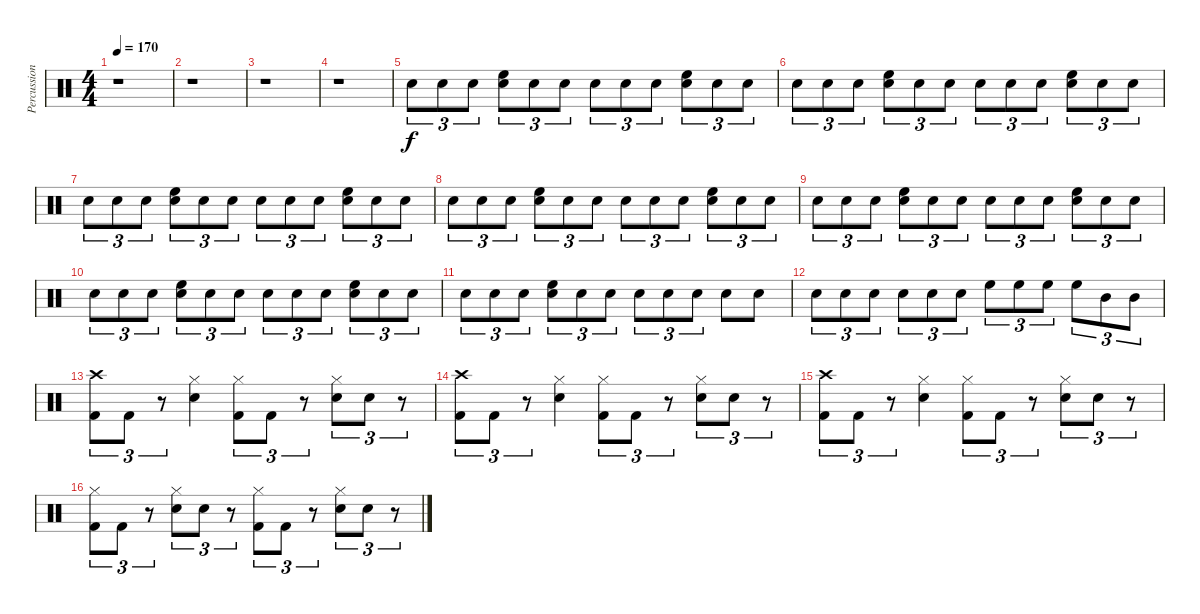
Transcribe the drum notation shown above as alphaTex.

\track ("Percussion" "Percussion") {instrument percussion}
\staff {score}
\articulation defaults
\ts (4 4)
\tempo 170
\clef neutral
\ks c
r.1{dy f} |
r.1 |
r.1 |
r.1 |
"Snare (hit) 2".8{tu (3 2)} "Snare (hit) 2".8{tu (3 2)} "Snare (hit) 2".8{tu (3 2)} ("High Floor Tom (hit)" "Snare (hit) 2").8{tu (3 2)} "Snare (hit) 2".8{tu (3 2)} "Snare (hit) 2".8{tu (3 2)} "Snare (hit) 2".8{tu (3 2)} "Snare (hit) 2".8{tu (3 2)} "Snare (hit) 2".8{tu (3 2)} ("High Floor Tom (hit)" "Snare (hit) 2").8{tu (3 2)} "Snare (hit) 2".8{tu (3 2)} "Snare (hit) 2".8{tu (3 2)} |
"Snare (hit) 2".8{tu (3 2)} "Snare (hit) 2".8{tu (3 2)} "Snare (hit) 2".8{tu (3 2)} ("High Floor Tom (hit)" "Snare (hit) 2").8{tu (3 2)} "Snare (hit) 2".8{tu (3 2)} "Snare (hit) 2".8{tu (3 2)} "Snare (hit) 2".8{tu (3 2)} "Snare (hit) 2".8{tu (3 2)} "Snare (hit) 2".8{tu (3 2)} ("High Floor Tom (hit)" "Snare (hit) 2").8{tu (3 2)} "Snare (hit) 2".8{tu (3 2)} "Snare (hit) 2".8{tu (3 2)} |
"Snare (hit) 2".8{tu (3 2)} "Snare (hit) 2".8{tu (3 2)} "Snare (hit) 2".8{tu (3 2)} ("High Floor Tom (hit)" "Snare (hit) 2").8{tu (3 2)} "Snare (hit) 2".8{tu (3 2)} "Snare (hit) 2".8{tu (3 2)} "Snare (hit) 2".8{tu (3 2)} "Snare (hit) 2".8{tu (3 2)} "Snare (hit) 2".8{tu (3 2)} ("High Floor Tom (hit)" "Snare (hit) 2").8{tu (3 2)} "Snare (hit) 2".8{tu (3 2)} "Snare (hit) 2".8{tu (3 2)} |
"Snare (hit) 2".8{tu (3 2)} "Snare (hit) 2".8{tu (3 2)} "Snare (hit) 2".8{tu (3 2)} ("High Floor Tom (hit)" "Snare (hit) 2").8{tu (3 2)} "Snare (hit) 2".8{tu (3 2)} "Snare (hit) 2".8{tu (3 2)} "Snare (hit) 2".8{tu (3 2)} "Snare (hit) 2".8{tu (3 2)} "Snare (hit) 2".8{tu (3 2)} ("High Floor Tom (hit)" "Snare (hit) 2").8{tu (3 2)} "Snare (hit) 2".8{tu (3 2)} "Snare (hit) 2".8{tu (3 2)} |
"Snare (hit) 2".8{tu (3 2)} "Snare (hit) 2".8{tu (3 2)} "Snare (hit) 2".8{tu (3 2)} ("High Floor Tom (hit)" "Snare (hit) 2").8{tu (3 2)} "Snare (hit) 2".8{tu (3 2)} "Snare (hit) 2".8{tu (3 2)} "Snare (hit) 2".8{tu (3 2)} "Snare (hit) 2".8{tu (3 2)} "Snare (hit) 2".8{tu (3 2)} ("High Floor Tom (hit)" "Snare (hit) 2").8{tu (3 2)} "Snare (hit) 2".8{tu (3 2)} "Snare (hit) 2".8{tu (3 2)} |
"Snare (hit) 2".8{tu (3 2)} "Snare (hit) 2".8{tu (3 2)} "Snare (hit) 2".8{tu (3 2)} ("High Floor Tom (hit)" "Snare (hit) 2").8{tu (3 2)} "Snare (hit) 2".8{tu (3 2)} "Snare (hit) 2".8{tu (3 2)} "Snare (hit) 2".8{tu (3 2)} "Snare (hit) 2".8{tu (3 2)} "Snare (hit) 2".8{tu (3 2)} ("High Floor Tom (hit)" "Snare (hit) 2").8{tu (3 2)} "Snare (hit) 2".8{tu (3 2)} "Snare (hit) 2".8{tu (3 2)} |
"Snare (hit) 2".8{tu (3 2)} "Snare (hit) 2".8{tu (3 2)} "Snare (hit) 2".8{tu (3 2)} ("High Floor Tom (hit)" "Snare (hit) 2").8{tu (3 2)} "Snare (hit) 2".8{tu (3 2)} "Snare (hit) 2".8{tu (3 2)} "Snare (hit) 2".8{tu (3 2)} "Snare (hit) 2".8{tu (3 2)} "Snare (hit) 2".8{tu (3 2)} "Snare (hit) 2".8 "Snare (hit) 2".8 |
"Snare (hit) 2".8{tu (3 2)} "Snare (hit) 2".8{tu (3 2)} "Snare (hit) 2".8{tu (3 2)} "Snare (hit) 2".8{tu (3 2)} "Snare (hit) 2".8{tu (3 2)} "Snare (hit) 2".8{tu (3 2)} "High Floor Tom (hit)".8{tu (3 2)} "High Floor Tom (hit)".8{tu (3 2)} "High Floor Tom (hit)".8{tu (3 2)} "High Floor Tom (hit)".8{tu (3 2)} "Mid Tom (hit)".8{tu (3 2)} "Mid Tom (hit)".8{tu (3 2)} |
("Crash high (hit)" "Kick (hit) 2").8{tu (3 2)} "Kick (hit) 2".8{tu (3 2)} r.8{tu (3 2)} ("Hi-Hat (closed)" "Snare (hit) 2").4 ("Hi-Hat (closed)" "Kick (hit) 2").8{tu (3 2)} "Kick (hit) 2".8{tu (3 2)} r.8{tu (3 2)} ("Hi-Hat (closed)" "Snare (hit) 2").8{tu (3 2)} "Snare (hit) 2".8{tu (3 2)} r.8{tu (3 2)} |
("Crash high (hit)" "Kick (hit) 2").8{tu (3 2)} "Kick (hit) 2".8{tu (3 2)} r.8{tu (3 2)} ("Hi-Hat (closed)" "Snare (hit) 2").4 ("Hi-Hat (closed)" "Kick (hit) 2").8{tu (3 2)} "Kick (hit) 2".8{tu (3 2)} r.8{tu (3 2)} ("Hi-Hat (closed)" "Snare (hit) 2").8{tu (3 2)} "Snare (hit) 2".8{tu (3 2)} r.8{tu (3 2)} |
("Crash high (hit)" "Kick (hit) 2").8{tu (3 2)} "Kick (hit) 2".8{tu (3 2)} r.8{tu (3 2)} ("Hi-Hat (closed)" "Snare (hit) 2").4 ("Hi-Hat (closed)" "Kick (hit) 2").8{tu (3 2)} "Kick (hit) 2".8{tu (3 2)} r.8{tu (3 2)} ("Hi-Hat (closed)" "Snare (hit) 2").8{tu (3 2)} "Snare (hit) 2".8{tu (3 2)} r.8{tu (3 2)} |
("Hi-Hat (closed)" "Kick (hit) 2").8{tu (3 2)} "Kick (hit) 2".8{tu (3 2)} r.8{tu (3 2)} ("Hi-Hat (closed)" "Snare (hit) 2").8{tu (3 2)} "Snare (hit) 2".8{tu (3 2)} r.8{tu (3 2)} ("Hi-Hat (closed)" "Kick (hit) 2").8{tu (3 2)} "Kick (hit) 2".8{tu (3 2)} r.8{tu (3 2)} ("Hi-Hat (closed)" "Snare (hit) 2").8{tu (3 2)} "Snare (hit) 2".8{tu (3 2)} r.8{tu (3 2)}
